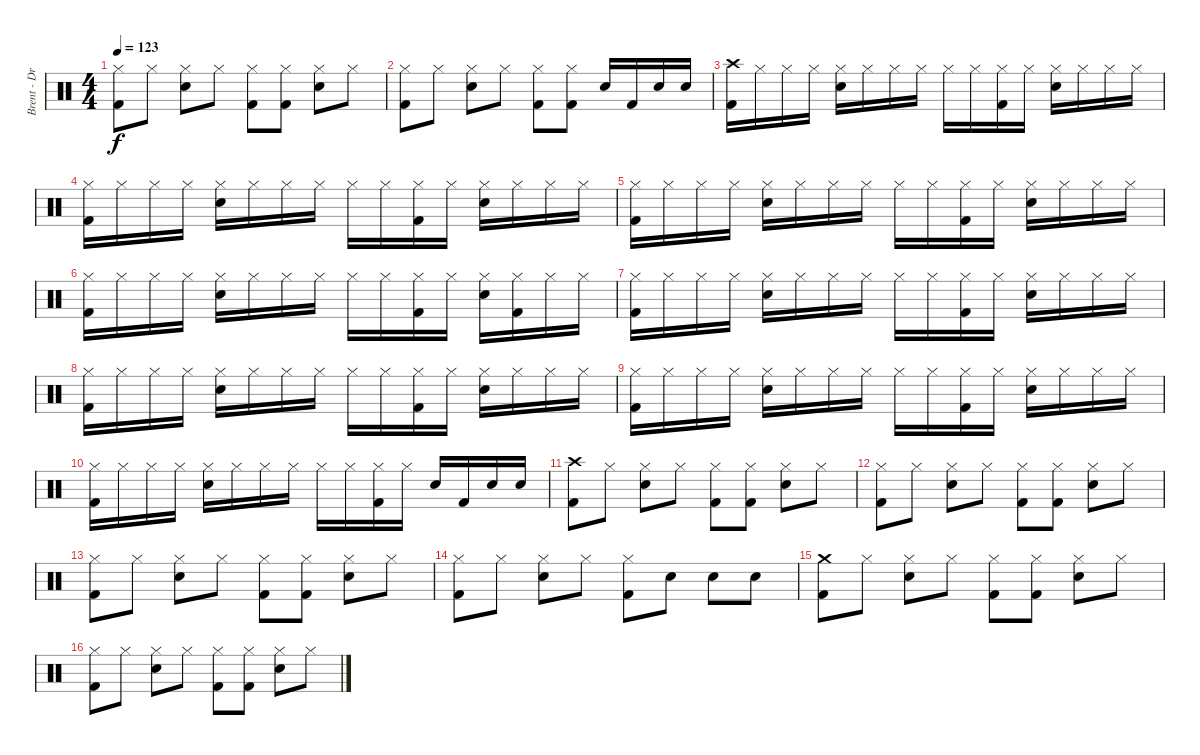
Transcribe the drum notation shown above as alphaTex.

\track ("Brent - Drums" "Brent - Dr") {instrument percussion}
\staff {score}
\articulation defaults
\ts (4 4)
\tempo 123
\clef neutral
\ks c
("Hi-Hat (closed)" "Kick (hit) 2").8{dy f} "Hi-Hat (closed)".8 ("Hi-Hat (closed)" "Snare (hit) 2").8 "Hi-Hat (closed)".8 ("Hi-Hat (closed)" "Kick (hit) 2").8 ("Hi-Hat (closed)" "Kick (hit) 2").8 ("Hi-Hat (closed)" "Snare (hit) 2").8 "Hi-Hat (closed)".8 |
("Hi-Hat (closed)" "Kick (hit) 2").8 "Hi-Hat (closed)".8 ("Hi-Hat (closed)" "Snare (hit) 2").8 "Hi-Hat (closed)".8 ("Hi-Hat (closed)" "Kick (hit) 2").8 ("Hi-Hat (closed)" "Kick (hit) 2").8 "Snare (hit) 2".16 "Kick (hit) 2".16 "Snare (hit) 2".16 "Snare (hit) 2".16 |
("Crash high (hit)" "Kick (hit) 2").16 "Hi-Hat (closed)".16 "Hi-Hat (closed)".16 "Hi-Hat (closed)".16 ("Hi-Hat (closed)" "Snare (hit) 2").16 "Hi-Hat (closed)".16 "Hi-Hat (closed)".16 "Hi-Hat (closed)".16 "Hi-Hat (closed)".16 "Hi-Hat (closed)".16 ("Hi-Hat (closed)" "Kick (hit) 2").16 "Hi-Hat (closed)".16 ("Hi-Hat (closed)" "Snare (hit) 2").16 "Hi-Hat (closed)".16 "Hi-Hat (closed)".16 "Hi-Hat (closed)".16 |
("Hi-Hat (closed)" "Kick (hit) 2").16 "Hi-Hat (closed)".16 "Hi-Hat (closed)".16 "Hi-Hat (closed)".16 ("Hi-Hat (closed)" "Snare (hit) 2").16 "Hi-Hat (closed)".16 "Hi-Hat (closed)".16 "Hi-Hat (closed)".16 "Hi-Hat (closed)".16 "Hi-Hat (closed)".16 ("Hi-Hat (closed)" "Kick (hit) 2").16 "Hi-Hat (closed)".16 ("Hi-Hat (closed)" "Snare (hit) 2").16 "Hi-Hat (closed)".16 "Hi-Hat (closed)".16 "Hi-Hat (closed)".16 |
("Hi-Hat (closed)" "Kick (hit) 2").16 "Hi-Hat (closed)".16 "Hi-Hat (closed)".16 "Hi-Hat (closed)".16 ("Hi-Hat (closed)" "Snare (hit) 2").16 "Hi-Hat (closed)".16 "Hi-Hat (closed)".16 "Hi-Hat (closed)".16 "Hi-Hat (closed)".16 "Hi-Hat (closed)".16 ("Hi-Hat (closed)" "Kick (hit) 2").16 "Hi-Hat (closed)".16 ("Hi-Hat (closed)" "Snare (hit) 2").16 "Hi-Hat (closed)".16 "Hi-Hat (closed)".16 "Hi-Hat (closed)".16 |
("Hi-Hat (closed)" "Kick (hit) 2").16 "Hi-Hat (closed)".16 "Hi-Hat (closed)".16 "Hi-Hat (closed)".16 ("Hi-Hat (closed)" "Snare (hit) 2").16 "Hi-Hat (closed)".16 "Hi-Hat (closed)".16 "Hi-Hat (closed)".16 "Hi-Hat (closed)".16 "Hi-Hat (closed)".16 ("Hi-Hat (closed)" "Kick (hit) 2").16 "Hi-Hat (closed)".16 ("Hi-Hat (closed)" "Snare (hit) 2").16 ("Hi-Hat (closed)" "Kick (hit) 2").16 "Hi-Hat (closed)".16 "Hi-Hat (closed)".16 |
("Hi-Hat (closed)" "Kick (hit) 2").16 "Hi-Hat (closed)".16 "Hi-Hat (closed)".16 "Hi-Hat (closed)".16 ("Hi-Hat (closed)" "Snare (hit) 2").16 "Hi-Hat (closed)".16 "Hi-Hat (closed)".16 "Hi-Hat (closed)".16 "Hi-Hat (closed)".16 "Hi-Hat (closed)".16 ("Hi-Hat (closed)" "Kick (hit) 2").16 "Hi-Hat (closed)".16 ("Hi-Hat (closed)" "Snare (hit) 2").16 "Hi-Hat (closed)".16 "Hi-Hat (closed)".16 "Hi-Hat (closed)".16 |
("Hi-Hat (closed)" "Kick (hit) 2").16 "Hi-Hat (closed)".16 "Hi-Hat (closed)".16 "Hi-Hat (closed)".16 ("Hi-Hat (closed)" "Snare (hit) 2").16 "Hi-Hat (closed)".16 "Hi-Hat (closed)".16 "Hi-Hat (closed)".16 "Hi-Hat (closed)".16 "Hi-Hat (closed)".16 ("Hi-Hat (closed)" "Kick (hit) 2").16 "Hi-Hat (closed)".16 ("Hi-Hat (closed)" "Snare (hit) 2").16 "Hi-Hat (closed)".16 "Hi-Hat (closed)".16 "Hi-Hat (closed)".16 |
("Hi-Hat (closed)" "Kick (hit) 2").16 "Hi-Hat (closed)".16 "Hi-Hat (closed)".16 "Hi-Hat (closed)".16 ("Hi-Hat (closed)" "Snare (hit) 2").16 "Hi-Hat (closed)".16 "Hi-Hat (closed)".16 "Hi-Hat (closed)".16 "Hi-Hat (closed)".16 "Hi-Hat (closed)".16 ("Hi-Hat (closed)" "Kick (hit) 2").16 "Hi-Hat (closed)".16 ("Hi-Hat (closed)" "Snare (hit) 2").16 "Hi-Hat (closed)".16 "Hi-Hat (closed)".16 "Hi-Hat (closed)".16 |
("Hi-Hat (closed)" "Kick (hit) 2").16 "Hi-Hat (closed)".16 "Hi-Hat (closed)".16 "Hi-Hat (closed)".16 ("Hi-Hat (closed)" "Snare (hit) 2").16 "Hi-Hat (closed)".16 "Hi-Hat (closed)".16 "Hi-Hat (closed)".16 "Hi-Hat (closed)".16 "Hi-Hat (closed)".16 ("Hi-Hat (closed)" "Kick (hit) 2").16 "Hi-Hat (closed)".16 "Snare (hit) 2".16 "Kick (hit) 2".16 "Snare (hit) 2".16 "Snare (hit) 2".16 |
("Crash high (hit)" "Kick (hit) 2").8 "Hi-Hat (closed)".8 ("Hi-Hat (closed)" "Snare (hit) 2").8 "Hi-Hat (closed)".8 ("Hi-Hat (closed)" "Kick (hit) 2").8 ("Hi-Hat (closed)" "Kick (hit) 2").8 ("Hi-Hat (closed)" "Snare (hit) 2").8 "Hi-Hat (closed)".8 |
("Hi-Hat (closed)" "Kick (hit) 2").8 "Hi-Hat (closed)".8 ("Hi-Hat (closed)" "Snare (hit) 2").8 "Hi-Hat (closed)".8 ("Hi-Hat (closed)" "Kick (hit) 2").8 ("Hi-Hat (closed)" "Kick (hit) 2").8 ("Hi-Hat (closed)" "Snare (hit) 2").8 "Hi-Hat (closed)".8 |
("Hi-Hat (closed)" "Kick (hit) 2").8 "Hi-Hat (closed)".8 ("Hi-Hat (closed)" "Snare (hit) 2").8 "Hi-Hat (closed)".8 ("Hi-Hat (closed)" "Kick (hit) 2").8 ("Hi-Hat (closed)" "Kick (hit) 2").8 ("Hi-Hat (closed)" "Snare (hit) 2").8 "Hi-Hat (closed)".8 |
("Hi-Hat (closed)" "Kick (hit) 2").8 "Hi-Hat (closed)".8 ("Hi-Hat (closed)" "Snare (hit) 2").8 "Hi-Hat (closed)".8 ("Hi-Hat (closed)" "Kick (hit) 2").8 "Snare (hit) 2".8 "Snare (hit) 2".8 "Snare (hit) 2".8 |
("Crash medium (hit)" "Kick (hit) 2").8 "Hi-Hat (closed)".8 ("Hi-Hat (closed)" "Snare (hit) 2").8 "Hi-Hat (closed)".8 ("Hi-Hat (closed)" "Kick (hit) 2").8 ("Hi-Hat (closed)" "Kick (hit) 2").8 ("Hi-Hat (closed)" "Snare (hit) 2").8 "Hi-Hat (closed)".8 |
("Hi-Hat (closed)" "Kick (hit) 2").8 "Hi-Hat (closed)".8 ("Hi-Hat (closed)" "Snare (hit) 2").8 "Hi-Hat (closed)".8 ("Hi-Hat (closed)" "Kick (hit) 2").8 ("Hi-Hat (closed)" "Kick (hit) 2").8 ("Hi-Hat (closed)" "Snare (hit) 2").8 "Hi-Hat (closed)".8
